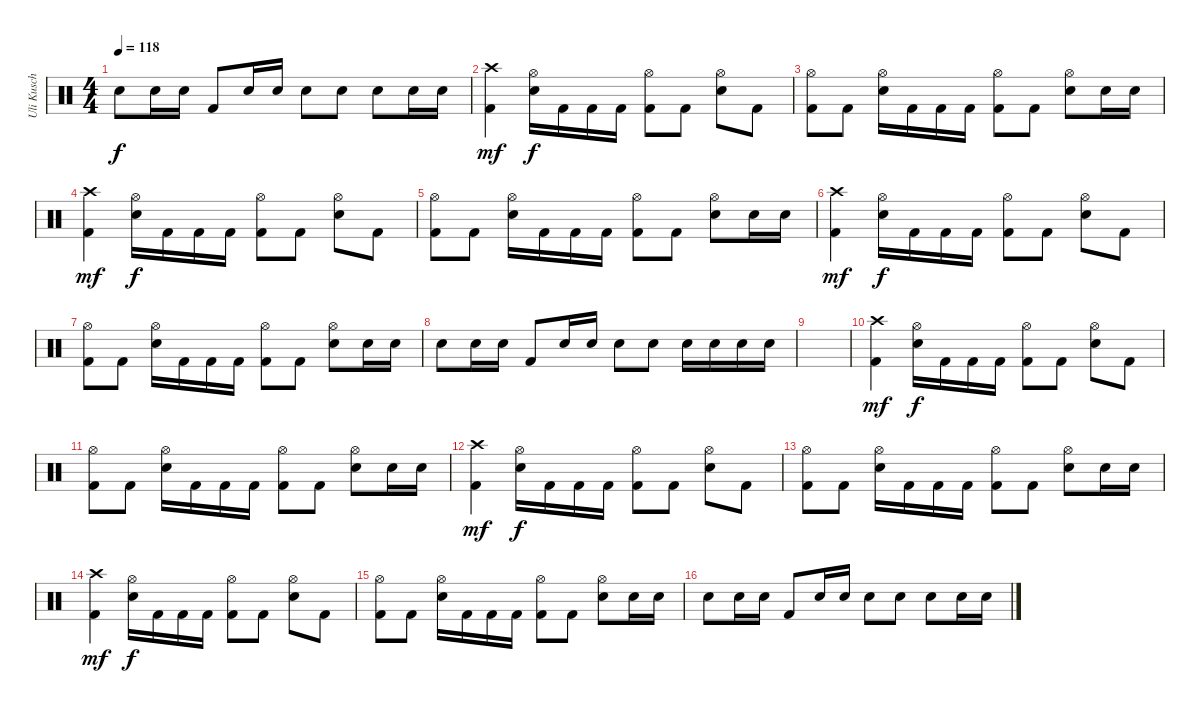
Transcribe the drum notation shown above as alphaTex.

\track ("Uli Kusch" "Uli Kusch") {instrument percussion}
\staff {score}
\articulation defaults
\ts (4 4)
\tempo 118
\clef neutral
\ks c "Electric Snare (hit)".8{dy f} "Electric Snare (hit)".16 "Electric Snare (hit)".16 "Kick (hit) 2".8 "Electric Snare (hit)".16 "Electric Snare (hit)".16 "Electric Snare (hit)".8 "Electric Snare (hit)".8 "Electric Snare (hit)".8 "Electric Snare (hit)".16 "Electric Snare (hit)".16
|
("Kick (hit) 2" "Crash high (hit)").4{dy mf} ("Electric Snare (hit)" "Hi-Hat (open)").16{dy f} "Kick (hit) 2".16 "Kick (hit) 2".16 "Kick (hit) 2".16 ("Kick (hit) 2" "Hi-Hat (open)").8 "Kick (hit) 2".8 ("Electric Snare (hit)" "Hi-Hat (open)").8 "Kick (hit) 2".8 |
("Kick (hit) 2" "Hi-Hat (open)").8 "Kick (hit) 2".8 ("Electric Snare (hit)" "Hi-Hat (open)").16 "Kick (hit) 2".16 "Kick (hit) 2".16 "Kick (hit) 2".16 ("Kick (hit) 2" "Hi-Hat (open)").8 "Kick (hit) 2".8 ("Electric Snare (hit)" "Hi-Hat (open)").8 "Electric Snare (hit)".16 "Electric Snare (hit)".16 |
("Kick (hit) 2" "Crash high (hit)").4{dy mf} ("Electric Snare (hit)" "Hi-Hat (open)").16{dy f} "Kick (hit) 2".16 "Kick (hit) 2".16 "Kick (hit) 2".16 ("Kick (hit) 2" "Hi-Hat (open)").8 "Kick (hit) 2".8 ("Electric Snare (hit)" "Hi-Hat (open)").8 "Kick (hit) 2".8 |
("Kick (hit) 2" "Hi-Hat (open)").8 "Kick (hit) 2".8 ("Electric Snare (hit)" "Hi-Hat (open)").16 "Kick (hit) 2".16 "Kick (hit) 2".16 "Kick (hit) 2".16 ("Kick (hit) 2" "Hi-Hat (open)").8 "Kick (hit) 2".8 ("Electric Snare (hit)" "Hi-Hat (open)").8 "Electric Snare (hit)".16 "Electric Snare (hit)".16 |
("Kick (hit) 2" "Crash high (hit)").4{dy mf} ("Electric Snare (hit)" "Hi-Hat (open)").16{dy f} "Kick (hit) 2".16 "Kick (hit) 2".16 "Kick (hit) 2".16 ("Kick (hit) 2" "Hi-Hat (open)").8 "Kick (hit) 2".8 ("Electric Snare (hit)" "Hi-Hat (open)").8 "Kick (hit) 2".8 |
("Kick (hit) 2" "Hi-Hat (open)").8 "Kick (hit) 2".8 ("Electric Snare (hit)" "Hi-Hat (open)").16 "Kick (hit) 2".16 "Kick (hit) 2".16 "Kick (hit) 2".16 ("Kick (hit) 2" "Hi-Hat (open)").8 "Kick (hit) 2".8 ("Electric Snare (hit)" "Hi-Hat (open)").8 "Electric Snare (hit)".16 "Electric Snare (hit)".16 |
"Electric Snare (hit)".8 "Electric Snare (hit)".16 "Electric Snare (hit)".16 "Kick (hit) 2".8 "Electric Snare (hit)".16 "Electric Snare (hit)".16 "Electric Snare (hit)".8 "Electric Snare (hit)".8 "Electric Snare (hit)".16 "Electric Snare (hit)".16 "Electric Snare (hit)".16 "Electric Snare (hit)".16 |
|
("Kick (hit) 2" "Crash high (hit)").4{dy mf} ("Electric Snare (hit)" "Hi-Hat (open)").16{dy f} "Kick (hit) 2".16 "Kick (hit) 2".16 "Kick (hit) 2".16 ("Kick (hit) 2" "Hi-Hat (open)").8 "Kick (hit) 2".8 ("Electric Snare (hit)" "Hi-Hat (open)").8 "Kick (hit) 2".8 |
("Kick (hit) 2" "Hi-Hat (open)").8 "Kick (hit) 2".8 ("Electric Snare (hit)" "Hi-Hat (open)").16 "Kick (hit) 2".16 "Kick (hit) 2".16 "Kick (hit) 2".16 ("Kick (hit) 2" "Hi-Hat (open)").8 "Kick (hit) 2".8 ("Electric Snare (hit)" "Hi-Hat (open)").8 "Electric Snare (hit)".16 "Electric Snare (hit)".16 |
("Kick (hit) 2" "Crash high (hit)").4{dy mf} ("Electric Snare (hit)" "Hi-Hat (open)").16{dy f} "Kick (hit) 2".16 "Kick (hit) 2".16 "Kick (hit) 2".16 ("Kick (hit) 2" "Hi-Hat (open)").8 "Kick (hit) 2".8 ("Electric Snare (hit)" "Hi-Hat (open)").8 "Kick (hit) 2".8 |
("Kick (hit) 2" "Hi-Hat (open)").8 "Kick (hit) 2".8 ("Electric Snare (hit)" "Hi-Hat (open)").16 "Kick (hit) 2".16 "Kick (hit) 2".16 "Kick (hit) 2".16 ("Kick (hit) 2" "Hi-Hat (open)").8 "Kick (hit) 2".8 ("Electric Snare (hit)" "Hi-Hat (open)").8 "Electric Snare (hit)".16 "Electric Snare (hit)".16 |
("Kick (hit) 2" "Crash high (hit)").4{dy mf} ("Electric Snare (hit)" "Hi-Hat (open)").16{dy f} "Kick (hit) 2".16 "Kick (hit) 2".16 "Kick (hit) 2".16 ("Kick (hit) 2" "Hi-Hat (open)").8 "Kick (hit) 2".8 ("Electric Snare (hit)" "Hi-Hat (open)").8 "Kick (hit) 2".8 |
("Kick (hit) 2" "Hi-Hat (open)").8 "Kick (hit) 2".8 ("Electric Snare (hit)" "Hi-Hat (open)").16 "Kick (hit) 2".16 "Kick (hit) 2".16 "Kick (hit) 2".16 ("Kick (hit) 2" "Hi-Hat (open)").8 "Kick (hit) 2".8 ("Electric Snare (hit)" "Hi-Hat (open)").8 "Electric Snare (hit)".16 "Electric Snare (hit)".16 |
"Electric Snare (hit)".8 "Electric Snare (hit)".16 "Electric Snare (hit)".16 "Kick (hit) 2".8 "Electric Snare (hit)".16 "Electric Snare (hit)".16 "Electric Snare (hit)".8 "Electric Snare (hit)".8 "Electric Snare (hit)".8 "Electric Snare (hit)".16 "Electric Snare (hit)".16
